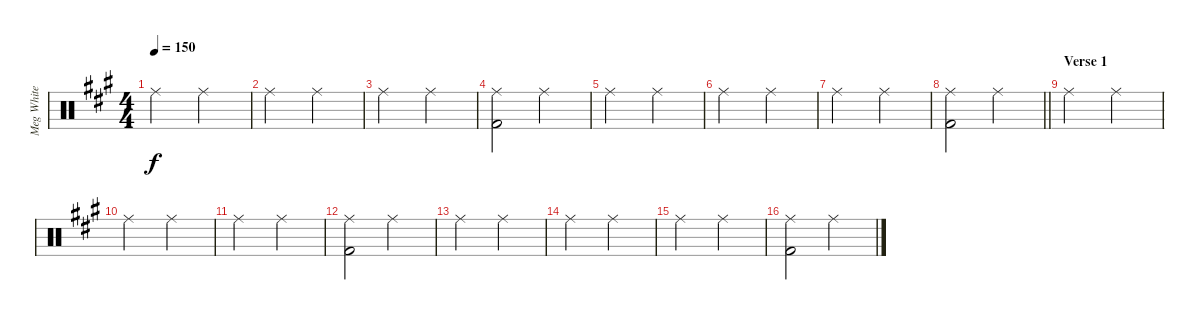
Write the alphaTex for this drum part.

\track ("Meg White Drums" "Meg White ") {instrument percussion}
\staff {score}
\articulation defaults
\ts (4 4)
\tempo 150
\clef neutral
\ks a "Ride (middle)".2{dy f} "Ride (middle)".2
|
"Ride (middle)".2 "Ride (middle)".2 |
"Ride (middle)".2 "Ride (middle)".2 |
("Ride (middle)" "Kick (hit) 2").2 "Ride (middle)".2 |
"Ride (middle)".2 "Ride (middle)".2 |
"Ride (middle)".2 "Ride (middle)".2 |
"Ride (middle)".2 "Ride (middle)".2 |
\barLineRight lightlight
("Ride (middle)" "Kick (hit) 2").2 "Ride (middle)".2 |
\section ("" "Verse 1")
"Ride (middle)".2 "Ride (middle)".2 |
"Ride (middle)".2 "Ride (middle)".2 |
"Ride (middle)".2 "Ride (middle)".2 |
("Ride (middle)" "Kick (hit) 2").2 "Ride (middle)".2 |
"Ride (middle)".2 "Ride (middle)".2 |
"Ride (middle)".2 "Ride (middle)".2 |
"Ride (middle)".2 "Ride (middle)".2 |
("Ride (middle)" "Kick (hit) 2").2 "Ride (middle)".2
